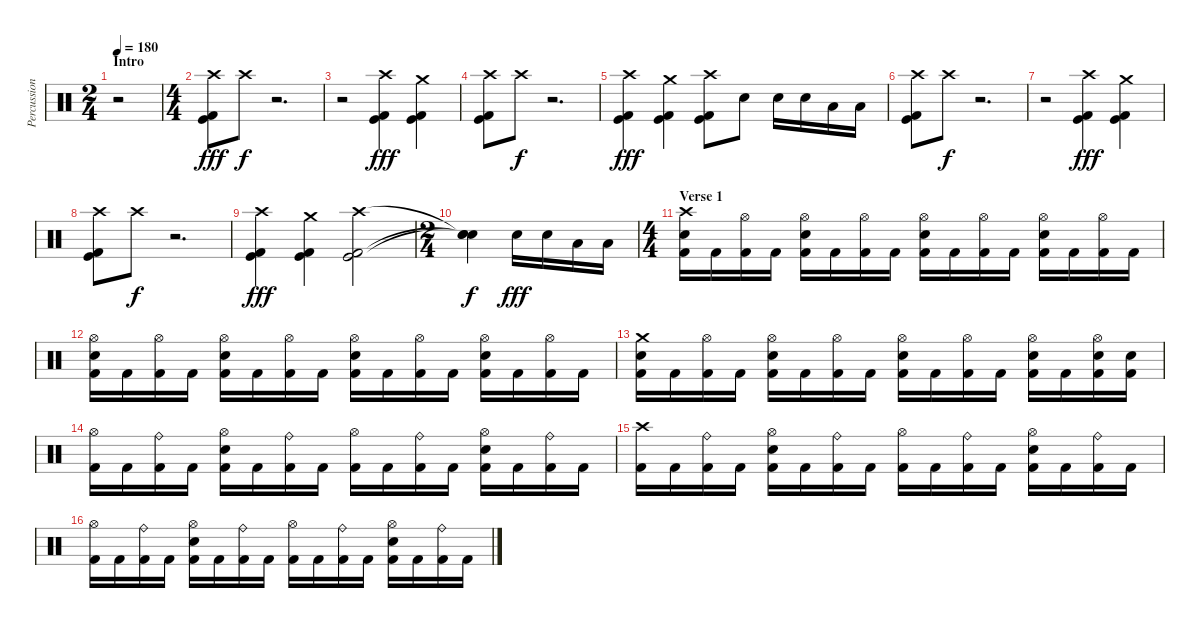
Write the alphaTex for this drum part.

\track ("Percussion" "Percussion") {instrument percussion}
\staff {score}
\articulation defaults
\ts (2 4)
\section ("" "Intro")
\tempo 180
\clef neutral
\ks c
r.2{dy fff} |
\ts (4 4)
("Crash high (hit)" "Kick (hit)" "Kick (hit) 2").8 "Crash high (hit)".8{dy f volume 0} r.2{d} |
r.2{volume 16} ("Crash high (hit)" "Kick (hit)" "Kick (hit) 2").4{dy fff} ("Crash medium (hit)" "Kick (hit)" "Kick (hit) 2").4 |
("Crash high (hit)" "Kick (hit)" "Kick (hit) 2").8 "Crash high (hit)".8{dy f volume 0} r.2{d} |
("Crash high (hit)" "Kick (hit)" "Kick (hit) 2").4{dy fff volume 16} ("Crash medium (hit)" "Kick (hit)" "Kick (hit) 2").4 ("Crash high (hit)" "Kick (hit)" "Kick (hit) 2").8 "Snare (hit) 2".8 "Snare (hit) 2".16 "Snare (hit) 2".16 "Low Tom (hit)".16 "Low Tom (hit)".16 |
("Crash high (hit)" "Kick (hit)" "Kick (hit) 2").8 "Crash high (hit)".8{dy f volume 0} r.2{d} |
r.2{volume 16} ("Crash high (hit)" "Kick (hit)" "Kick (hit) 2").4{dy fff} ("Crash medium (hit)" "Kick (hit)" "Kick (hit) 2").4 |
("Crash high (hit)" "Kick (hit)" "Kick (hit) 2").8 "Crash high (hit)".8{dy f volume 0} r.2{d} |
("Crash high (hit)" "Kick (hit)" "Kick (hit) 2").4{dy fff volume 16} ("Crash medium (hit)" "Kick (hit)" "Kick (hit) 2").4 ("Crash high (hit)" "Kick (hit)" "Kick (hit) 2").2 |
\ts (2 4)
("Snare (hit)"{t} "Snare (hit)"{t} "Snare (hit)"{t}).4{dy f} "Snare (hit) 2".16{dy fff} "Snare (hit) 2".16 "Low Tom (hit)".16 "Low Tom (hit)".16 |
\ts (4 4)
\section ("" "Verse 1")
("Crash high (hit)" "Snare (hit) 2" "Kick (hit) 2").16 "Kick (hit) 2".16 ("Hi-Hat (open)" "Kick (hit) 2").16 "Kick (hit) 2".16 ("Hi-Hat (open)" "Snare (hit) 2" "Kick (hit) 2").16 "Kick (hit) 2".16 ("Hi-Hat (open)" "Kick (hit) 2").16 "Kick (hit) 2".16 ("Hi-Hat (open)" "Snare (hit) 2" "Kick (hit) 2").16 "Kick (hit) 2".16 ("Hi-Hat (open)" "Kick (hit) 2").16 "Kick (hit) 2".16 ("Hi-Hat (open)" "Snare (hit) 2" "Kick (hit) 2").16 "Kick (hit) 2".16 ("Hi-Hat (open)" "Kick (hit) 2").16 "Kick (hit) 2".16 |
("Hi-Hat (open)" "Snare (hit) 2" "Kick (hit) 2").16 "Kick (hit) 2".16 ("Hi-Hat (open)" "Kick (hit) 2").16 "Kick (hit) 2".16 ("Hi-Hat (open)" "Snare (hit) 2" "Kick (hit) 2").16 "Kick (hit) 2".16 ("Hi-Hat (open)" "Kick (hit) 2").16 "Kick (hit) 2".16 ("Hi-Hat (open)" "Snare (hit) 2" "Kick (hit) 2").16 "Kick (hit) 2".16 ("Hi-Hat (open)" "Kick (hit) 2").16 "Kick (hit) 2".16 ("Hi-Hat (open)" "Snare (hit) 2" "Kick (hit) 2").16 "Kick (hit) 2".16 ("Hi-Hat (open)" "Kick (hit) 2").16 "Kick (hit) 2".16 |
("Crash medium (hit)" "Snare (hit) 2" "Kick (hit) 2").16 "Kick (hit) 2".16 ("Hi-Hat (open)" "Kick (hit) 2").16 "Kick (hit) 2".16 ("Hi-Hat (open)" "Snare (hit) 2" "Kick (hit) 2").16 "Kick (hit) 2".16 ("Hi-Hat (open)" "Kick (hit) 2").16 "Kick (hit) 2".16 ("Hi-Hat (open)" "Snare (hit) 2" "Kick (hit) 2").16 "Kick (hit) 2".16 ("Hi-Hat (open)" "Kick (hit) 2").16 "Kick (hit) 2".16 ("Hi-Hat (open)" "Snare (hit) 2" "Kick (hit) 2").16 "Kick (hit) 2".16 ("Hi-Hat (open)" "Snare (hit) 2" "Kick (hit) 2").16 ("Snare (hit) 2" "Kick (hit) 2").16 |
("Hi-Hat (open)" "Kick (hit) 2").16 "Kick (hit) 2".16 ("Ride (bell)" "Kick (hit) 2").16 "Kick (hit) 2".16 ("Hi-Hat (open)" "Snare (hit) 2" "Kick (hit) 2").16 "Kick (hit) 2".16 ("Ride (bell)" "Kick (hit) 2").16 "Kick (hit) 2".16 ("Hi-Hat (open)" "Kick (hit) 2").16 "Kick (hit) 2".16 ("Ride (bell)" "Kick (hit) 2").16 "Kick (hit) 2".16 ("Hi-Hat (open)" "Snare (hit) 2" "Kick (hit) 2").16 "Kick (hit) 2".16 ("Ride (bell)" "Kick (hit) 2").16 "Kick (hit) 2".16 |
("Crash high (hit)" "Kick (hit) 2").16 "Kick (hit) 2".16 ("Ride (bell)" "Kick (hit) 2").16 "Kick (hit) 2".16 ("Hi-Hat (open)" "Snare (hit) 2" "Kick (hit) 2").16 "Kick (hit) 2".16 ("Ride (bell)" "Kick (hit) 2").16 "Kick (hit) 2".16 ("Hi-Hat (open)" "Kick (hit) 2").16 "Kick (hit) 2".16 ("Ride (bell)" "Kick (hit) 2").16 "Kick (hit) 2".16 ("Hi-Hat (open)" "Snare (hit) 2" "Kick (hit) 2").16 "Kick (hit) 2".16 ("Ride (bell)" "Kick (hit) 2").16 "Kick (hit) 2".16 |
("Hi-Hat (open)" "Kick (hit) 2").16 "Kick (hit) 2".16 ("Ride (bell)" "Kick (hit) 2").16 "Kick (hit) 2".16 ("Hi-Hat (open)" "Snare (hit) 2" "Kick (hit) 2").16 "Kick (hit) 2".16 ("Ride (bell)" "Kick (hit) 2").16 "Kick (hit) 2".16 ("Hi-Hat (open)" "Kick (hit) 2").16 "Kick (hit) 2".16 ("Ride (bell)" "Kick (hit) 2").16 "Kick (hit) 2".16 ("Hi-Hat (open)" "Snare (hit) 2" "Kick (hit) 2").16 "Kick (hit) 2".16 ("Ride (bell)" "Kick (hit) 2").16 "Kick (hit) 2".16
